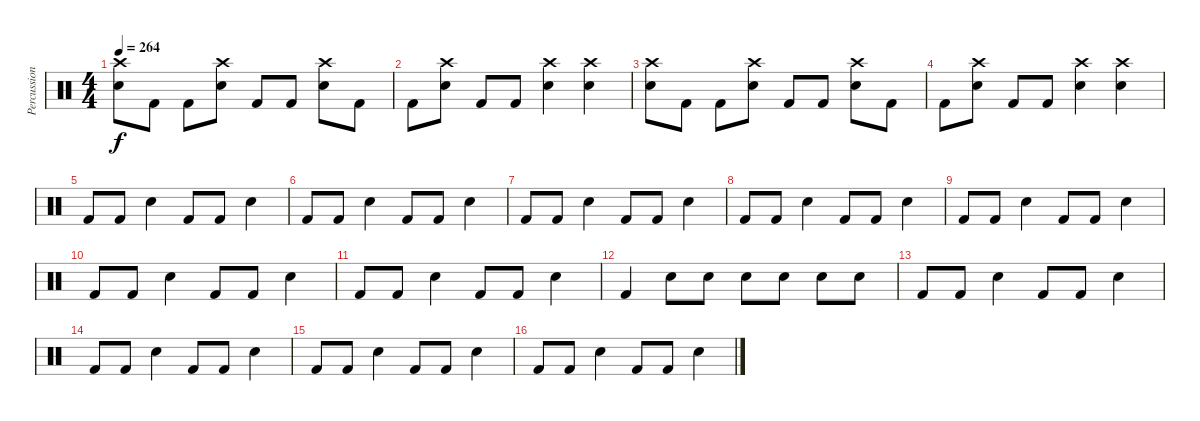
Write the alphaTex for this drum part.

\track ("Percussion" "Percussion") {instrument percussion}
\staff {score}
\articulation defaults
\ts (4 4)
\tempo 264
\clef neutral
\ks c
("Crash high (hit)" "Snare (hit) 2").8{dy f} "Kick (hit) 2".8 "Kick (hit) 2".8 ("Crash high (hit)" "Snare (hit) 2").8 "Kick (hit) 2".8 "Kick (hit) 2".8 ("Crash high (hit)" "Snare (hit) 2").8 "Kick (hit) 2".8 |
"Kick (hit) 2".8 ("Crash high (hit)" "Snare (hit) 2").8 "Kick (hit) 2".8 "Kick (hit) 2".8 ("Crash high (hit)" "Snare (hit) 2").4 ("Crash high (hit)" "Snare (hit) 2").4 |
("Crash high (hit)" "Snare (hit) 2").8 "Kick (hit) 2".8 "Kick (hit) 2".8 ("Crash high (hit)" "Snare (hit) 2").8 "Kick (hit) 2".8 "Kick (hit) 2".8 ("Crash high (hit)" "Snare (hit) 2").8 "Kick (hit) 2".8 |
"Kick (hit) 2".8 ("Crash high (hit)" "Snare (hit) 2").8 "Kick (hit) 2".8 "Kick (hit) 2".8 ("Crash high (hit)" "Snare (hit) 2").4 ("Crash high (hit)" "Snare (hit) 2").4 |
"Kick (hit) 2".8 "Kick (hit) 2".8 "Snare (hit) 2".4 "Kick (hit) 2".8 "Kick (hit) 2".8 "Snare (hit) 2".4 |
"Kick (hit) 2".8 "Kick (hit) 2".8 "Snare (hit) 2".4 "Kick (hit) 2".8 "Kick (hit) 2".8 "Snare (hit) 2".4 |
"Kick (hit) 2".8 "Kick (hit) 2".8 "Snare (hit) 2".4 "Kick (hit) 2".8 "Kick (hit) 2".8 "Snare (hit) 2".4 |
"Kick (hit) 2".8 "Kick (hit) 2".8 "Snare (hit) 2".4 "Kick (hit) 2".8 "Kick (hit) 2".8 "Snare (hit) 2".4 |
"Kick (hit) 2".8 "Kick (hit) 2".8 "Snare (hit) 2".4 "Kick (hit) 2".8 "Kick (hit) 2".8 "Snare (hit) 2".4 |
"Kick (hit) 2".8 "Kick (hit) 2".8 "Snare (hit) 2".4 "Kick (hit) 2".8 "Kick (hit) 2".8 "Snare (hit) 2".4 |
"Kick (hit) 2".8 "Kick (hit) 2".8 "Snare (hit) 2".4 "Kick (hit) 2".8 "Kick (hit) 2".8 "Snare (hit) 2".4 |
"Kick (hit) 2".4 "Snare (hit) 2".8 "Snare (hit) 2".8 "Snare (hit) 2".8 "Snare (hit) 2".8 "Snare (hit) 2".8 "Snare (hit) 2".8 |
"Kick (hit) 2".8 "Kick (hit) 2".8 "Snare (hit) 2".4 "Kick (hit) 2".8 "Kick (hit) 2".8 "Snare (hit) 2".4 |
"Kick (hit) 2".8 "Kick (hit) 2".8 "Snare (hit) 2".4 "Kick (hit) 2".8 "Kick (hit) 2".8 "Snare (hit) 2".4 |
"Kick (hit) 2".8 "Kick (hit) 2".8 "Snare (hit) 2".4 "Kick (hit) 2".8 "Kick (hit) 2".8 "Snare (hit) 2".4 |
"Kick (hit) 2".8 "Kick (hit) 2".8 "Snare (hit) 2".4 "Kick (hit) 2".8 "Kick (hit) 2".8 "Snare (hit) 2".4
